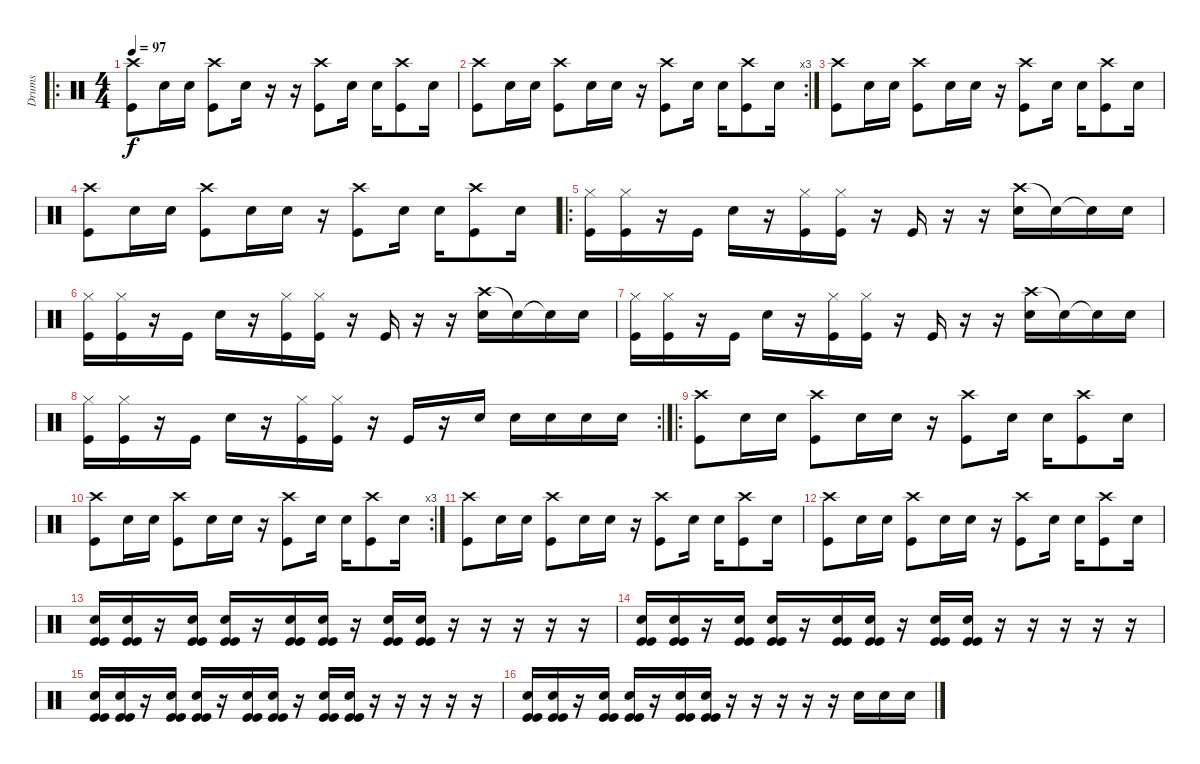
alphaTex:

\track ("Drums" "Drums") {instrument percussion}
\staff {score}
\articulation defaults
\ro
\ts (4 4)
\tempo 97
\clef neutral
\ks c
("Kick (hit)" "Crash high (hit)").8{dy f} "Snare (hit) 2".16 "Snare (hit) 2".16 ("Kick (hit)" "Crash high (hit)").8 "Snare (hit) 2".16 r.16 r.16 ("Kick (hit)" "Crash high (hit)").8 "Snare (hit) 2".16 "Snare (hit) 2".16 ("Kick (hit)" "Crash high (hit)").8 "Snare (hit) 2".16 |
\rc 3
("Kick (hit)" "Crash high (hit)").8 "Snare (hit) 2".16 "Snare (hit) 2".16 ("Kick (hit)" "Crash high (hit)").8 "Snare (hit) 2".16 "Snare (hit) 2".16 r.16 ("Kick (hit)" "Crash high (hit)").8 "Snare (hit) 2".16 "Snare (hit) 2".16 ("Kick (hit)" "Crash high (hit)").8 "Snare (hit) 2".16 |
("Kick (hit)" "Crash high (hit)").8 "Snare (hit) 2".16 "Snare (hit) 2".16 ("Kick (hit)" "Crash high (hit)").8 "Snare (hit) 2".16 "Snare (hit) 2".16 r.16 ("Kick (hit)" "Crash high (hit)").8 "Snare (hit) 2".16 "Snare (hit) 2".16 ("Kick (hit)" "Crash high (hit)").8 "Snare (hit) 2".16 |
("Kick (hit)" "Crash high (hit)").8 "Snare (hit) 2".16 "Snare (hit) 2".16 ("Kick (hit)" "Crash high (hit)").8 "Snare (hit) 2".16 "Snare (hit) 2".16 r.16 ("Kick (hit)" "Crash high (hit)").8 "Snare (hit) 2".16 "Snare (hit) 2".16 ("Kick (hit)" "Crash high (hit)").8 "Snare (hit) 2".16 |
\ro
("Kick (hit)" "Hi-Hat (closed)").16 ("Kick (hit)" "Hi-Hat (closed)").16 r.16 "Kick (hit)".16 "Snare (hit) 2".16 r.16 ("Kick (hit)" "Hi-Hat (closed)").16 ("Kick (hit)" "Hi-Hat (closed)").16 r.16 "Kick (hit)".16 r.16 r.16 ("Crash high (hit)" "Snare (hit) 2").16 "Snare (hit)"{t}.16 "Snare (hit)"{t}.16 "Snare (hit) 2".16 |
("Kick (hit)" "Hi-Hat (closed)").16 ("Kick (hit)" "Hi-Hat (closed)").16 r.16 "Kick (hit)".16 "Snare (hit) 2".16 r.16 ("Kick (hit)" "Hi-Hat (closed)").16 ("Kick (hit)" "Hi-Hat (closed)").16 r.16 "Kick (hit)".16 r.16 r.16 ("Crash high (hit)" "Snare (hit) 2").16 "Snare (hit)"{t}.16 "Snare (hit)"{t}.16 "Snare (hit) 2".16 |
("Kick (hit)" "Hi-Hat (closed)").16 ("Kick (hit)" "Hi-Hat (closed)").16 r.16 "Kick (hit)".16 "Snare (hit) 2".16 r.16 ("Kick (hit)" "Hi-Hat (closed)").16 ("Kick (hit)" "Hi-Hat (closed)").16 r.16 "Kick (hit)".16 r.16 r.16 ("Crash high (hit)" "Snare (hit) 2").16 "Snare (hit)"{t}.16 "Snare (hit)"{t}.16 "Snare (hit) 2".16 |
\rc 2
("Kick (hit)" "Hi-Hat (closed)").16 ("Kick (hit)" "Hi-Hat (closed)").16 r.16 "Kick (hit)".16 "Snare (hit) 2".16 r.16 ("Kick (hit)" "Hi-Hat (closed)").16 ("Kick (hit)" "Hi-Hat (closed)").16 r.16 "Kick (hit)".16 r.16 "Snare (hit) 2".16 "Snare (hit) 2".16 "Snare (hit) 2".16 "Snare (hit) 2".16 "Snare (hit) 2".16 |
\ro
("Kick (hit)" "Crash high (hit)").8 "Snare (hit) 2".16 "Snare (hit) 2".16 ("Kick (hit)" "Crash high (hit)").8 "Snare (hit) 2".16 "Snare (hit) 2".16 r.16 ("Kick (hit)" "Crash high (hit)").8 "Snare (hit) 2".16 "Snare (hit) 2".16 ("Kick (hit)" "Crash high (hit)").8 "Snare (hit) 2".16 |
\rc 3
("Kick (hit)" "Crash high (hit)").8 "Snare (hit) 2".16 "Snare (hit) 2".16 ("Kick (hit)" "Crash high (hit)").8 "Snare (hit) 2".16 "Snare (hit) 2".16 r.16 ("Kick (hit)" "Crash high (hit)").8 "Snare (hit) 2".16 "Snare (hit) 2".16 ("Kick (hit)" "Crash high (hit)").8 "Snare (hit) 2".16 |
("Kick (hit)" "Crash high (hit)").8 "Snare (hit) 2".16 "Snare (hit) 2".16 ("Kick (hit)" "Crash high (hit)").8 "Snare (hit) 2".16 "Snare (hit) 2".16 r.16 ("Kick (hit)" "Crash high (hit)").8 "Snare (hit) 2".16 "Snare (hit) 2".16 ("Kick (hit)" "Crash high (hit)").8 "Snare (hit) 2".16 |
("Kick (hit)" "Crash high (hit)").8 "Snare (hit) 2".16 "Snare (hit) 2".16 ("Kick (hit)" "Crash high (hit)").8 "Snare (hit) 2".16 "Snare (hit) 2".16 r.16 ("Kick (hit)" "Crash high (hit)").8 "Snare (hit) 2".16 "Snare (hit) 2".16 ("Kick (hit)" "Crash high (hit)").8 "Snare (hit) 2".16 |
("Kick (hit)" "Kick (hit)" "Snare (hit) 2").16 ("Kick (hit)" "Kick (hit)" "Snare (hit) 2").16 r.16 ("Kick (hit)" "Kick (hit)" "Snare (hit) 2").16 ("Kick (hit)" "Kick (hit)" "Snare (hit) 2").16 r.16 ("Kick (hit)" "Kick (hit)" "Snare (hit) 2").16 ("Kick (hit)" "Kick (hit)" "Snare (hit) 2").16 r.16 ("Kick (hit)" "Kick (hit)" "Snare (hit) 2").16 ("Kick (hit)" "Kick (hit)" "Snare (hit) 2").16 r.16 r.16 r.16 r.16 r.16 |
("Kick (hit)" "Kick (hit)" "Snare (hit) 2").16 ("Kick (hit)" "Kick (hit)" "Snare (hit) 2").16 r.16 ("Kick (hit)" "Kick (hit)" "Snare (hit) 2").16 ("Kick (hit)" "Kick (hit)" "Snare (hit) 2").16 r.16 ("Kick (hit)" "Kick (hit)" "Snare (hit) 2").16 ("Kick (hit)" "Kick (hit)" "Snare (hit) 2").16 r.16 ("Kick (hit)" "Kick (hit)" "Snare (hit) 2").16 ("Kick (hit)" "Kick (hit)" "Snare (hit) 2").16 r.16 r.16 r.16 r.16 r.16 |
("Kick (hit)" "Kick (hit)" "Snare (hit) 2").16 ("Kick (hit)" "Kick (hit)" "Snare (hit) 2").16 r.16 ("Kick (hit)" "Kick (hit)" "Snare (hit) 2").16 ("Kick (hit)" "Kick (hit)" "Snare (hit) 2").16 r.16 ("Kick (hit)" "Kick (hit)" "Snare (hit) 2").16 ("Kick (hit)" "Kick (hit)" "Snare (hit) 2").16 r.16 ("Kick (hit)" "Kick (hit)" "Snare (hit) 2").16 ("Kick (hit)" "Kick (hit)" "Snare (hit) 2").16 r.16 r.16 r.16 r.16 r.16 |
("Kick (hit)" "Kick (hit)" "Snare (hit) 2").16 ("Kick (hit)" "Kick (hit)" "Snare (hit) 2").16 r.16 ("Kick (hit)" "Kick (hit)" "Snare (hit) 2").16 ("Kick (hit)" "Kick (hit)" "Snare (hit) 2").16 r.16 ("Kick (hit)" "Kick (hit)" "Snare (hit) 2").16 ("Kick (hit)" "Kick (hit)" "Snare (hit) 2").16 r.16 r.16 r.16 r.16 r.16 "Snare (hit) 2".16 "Snare (hit) 2".16 "Snare (hit) 2".16
